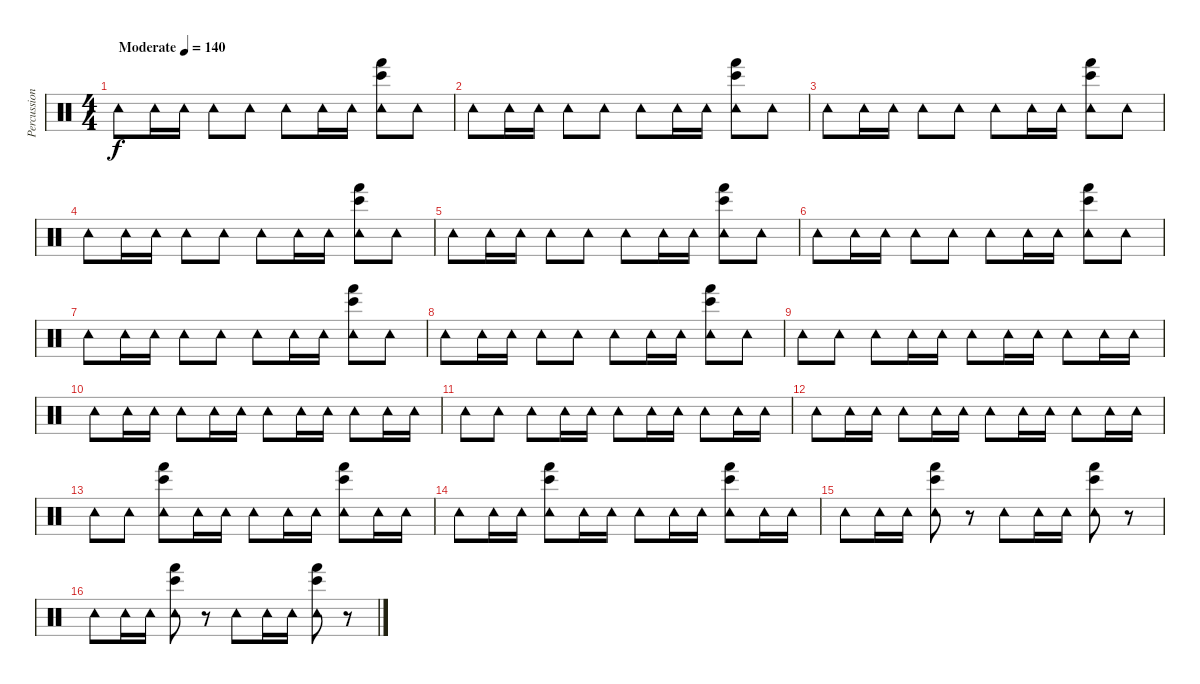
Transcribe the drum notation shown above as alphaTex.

\track ("Percussion" "Percussion") {instrument percussion}
\staff {score}
\articulation defaults
\ts (4 4)
\tempo (140 "Moderate")
\clef neutral
\ks c "Tambourine (hit)".8{dy f} "Tambourine (hit)".16 "Tambourine (hit)".16 "Tambourine (hit)".8 "Tambourine (hit)".8 "Tambourine (hit)".8 "Tambourine (hit)".16 "Tambourine (hit)".16
("Tambourine (hit)" "Hand (hit)" "Bongo High (hit)").8 "Tambourine (hit)".8 |
"Tambourine (hit)".8 "Tambourine (hit)".16 "Tambourine (hit)".16 "Tambourine (hit)".8 "Tambourine (hit)".8 "Tambourine (hit)".8 "Tambourine (hit)".16 "Tambourine (hit)".16 ("Tambourine (hit)" "Hand (hit)" "Bongo High (hit)").8 "Tambourine (hit)".8 |
"Tambourine (hit)".8 "Tambourine (hit)".16 "Tambourine (hit)".16 "Tambourine (hit)".8 "Tambourine (hit)".8 "Tambourine (hit)".8 "Tambourine (hit)".16 "Tambourine (hit)".16 ("Tambourine (hit)" "Hand (hit)" "Bongo High (hit)").8 "Tambourine (hit)".8 |
"Tambourine (hit)".8 "Tambourine (hit)".16 "Tambourine (hit)".16 "Tambourine (hit)".8 "Tambourine (hit)".8 "Tambourine (hit)".8 "Tambourine (hit)".16 "Tambourine (hit)".16 ("Tambourine (hit)" "Hand (hit)" "Bongo High (hit)").8 "Tambourine (hit)".8 |
"Tambourine (hit)".8 "Tambourine (hit)".16 "Tambourine (hit)".16 "Tambourine (hit)".8 "Tambourine (hit)".8 "Tambourine (hit)".8 "Tambourine (hit)".16 "Tambourine (hit)".16 ("Tambourine (hit)" "Hand (hit)" "Bongo High (hit)").8 "Tambourine (hit)".8 |
"Tambourine (hit)".8 "Tambourine (hit)".16 "Tambourine (hit)".16 "Tambourine (hit)".8 "Tambourine (hit)".8 "Tambourine (hit)".8 "Tambourine (hit)".16 "Tambourine (hit)".16 ("Tambourine (hit)" "Hand (hit)" "Bongo High (hit)").8 "Tambourine (hit)".8 |
"Tambourine (hit)".8 "Tambourine (hit)".16 "Tambourine (hit)".16 "Tambourine (hit)".8 "Tambourine (hit)".8 "Tambourine (hit)".8 "Tambourine (hit)".16 "Tambourine (hit)".16 ("Tambourine (hit)" "Hand (hit)" "Bongo High (hit)").8 "Tambourine (hit)".8 |
"Tambourine (hit)".8 "Tambourine (hit)".16 "Tambourine (hit)".16 "Tambourine (hit)".8 "Tambourine (hit)".8 "Tambourine (hit)".8 "Tambourine (hit)".16 "Tambourine (hit)".16 ("Tambourine (hit)" "Hand (hit)" "Bongo High (hit)").8 "Tambourine (hit)".8 |
"Tambourine (hit)".8 "Tambourine (hit)".8 "Tambourine (hit)".8 "Tambourine (hit)".16 "Tambourine (hit)".16 "Tambourine (hit)".8 "Tambourine (hit)".16 "Tambourine (hit)".16 "Tambourine (hit)".8 "Tambourine (hit)".16 "Tambourine (hit)".16 |
"Tambourine (hit)".8 "Tambourine (hit)".16 "Tambourine (hit)".16 "Tambourine (hit)".8 "Tambourine (hit)".16 "Tambourine (hit)".16 "Tambourine (hit)".8 "Tambourine (hit)".16 "Tambourine (hit)".16 "Tambourine (hit)".8 "Tambourine (hit)".16 "Tambourine (hit)".16 |
"Tambourine (hit)".8 "Tambourine (hit)".8 "Tambourine (hit)".8 "Tambourine (hit)".16 "Tambourine (hit)".16 "Tambourine (hit)".8 "Tambourine (hit)".16 "Tambourine (hit)".16 "Tambourine (hit)".8 "Tambourine (hit)".16 "Tambourine (hit)".16 |
"Tambourine (hit)".8 "Tambourine (hit)".16 "Tambourine (hit)".16 "Tambourine (hit)".8 "Tambourine (hit)".16 "Tambourine (hit)".16 "Tambourine (hit)".8 "Tambourine (hit)".16 "Tambourine (hit)".16 "Tambourine (hit)".8 "Tambourine (hit)".16 "Tambourine (hit)".16 |
"Tambourine (hit)".8 "Tambourine (hit)".8 ("Tambourine (hit)" "Hand (hit)" "Bongo High (hit)").8 "Tambourine (hit)".16 "Tambourine (hit)".16 "Tambourine (hit)".8 "Tambourine (hit)".16 "Tambourine (hit)".16 ("Tambourine (hit)" "Hand (hit)" "Bongo High (hit)").8 "Tambourine (hit)".16 "Tambourine (hit)".16 |
"Tambourine (hit)".8 "Tambourine (hit)".16 "Tambourine (hit)".16 ("Tambourine (hit)" "Hand (hit)" "Bongo High (hit)").8 "Tambourine (hit)".16 "Tambourine (hit)".16 "Tambourine (hit)".8 "Tambourine (hit)".16 "Tambourine (hit)".16 ("Tambourine (hit)" "Hand (hit)" "Bongo High (hit)").8 "Tambourine (hit)".16 "Tambourine (hit)".16 |
"Tambourine (hit)".8 "Tambourine (hit)".16 "Tambourine (hit)".16 ("Tambourine (hit)" "Bongo High (hit)" "Hand (hit)").8 r.8 "Tambourine (hit)".8 "Tambourine (hit)".16 "Tambourine (hit)".16 ("Tambourine (hit)" "Bongo High (hit)" "Hand (hit)").8 r.8 |
"Tambourine (hit)".8 "Tambourine (hit)".16 "Tambourine (hit)".16 ("Tambourine (hit)" "Bongo High (hit)" "Hand (hit)").8 r.8 "Tambourine (hit)".8 "Tambourine (hit)".16 "Tambourine (hit)".16 ("Tambourine (hit)" "Bongo High (hit)" "Hand (hit)").8 r.8
